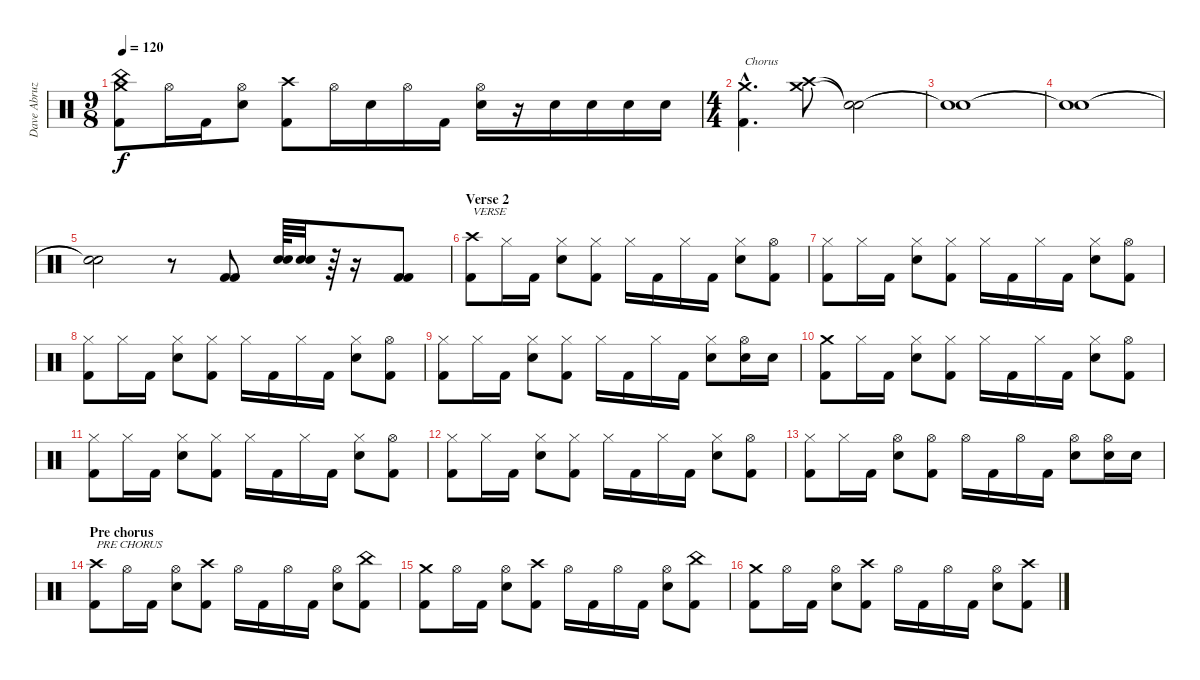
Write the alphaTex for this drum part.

\track ("Dave Abruzzesse" "Dave Abruz") {instrument percussion}
\staff {score}
\articulation defaults
\ts (9 8)
\tempo 120
\clef neutral
\ks c
("China (hit)" "Crash medium (hit)" "Kick (hit) 2").8{dy f} "Hi-Hat (open)".16 "Kick (hit) 2".16 ("Hi-Hat (open)" "Electric Snare (hit)").8 ("Crash high (hit)" "Kick (hit) 2").8 "Hi-Hat (open)".16 "Electric Snare (hit)".16 "Hi-Hat (open)".16 "Kick (hit) 2".16 ("Hi-Hat (open)" "Electric Snare (hit)").16 r.16 "Electric Snare (hit)".16 "Electric Snare (hit)".16 "Electric Snare (hit)".16 "Electric Snare (hit)".16 |
\ts (4 4)
("Crash medium (hit)"{hac} "Kick (hit) 2"{hac}).4{d txt "Chorus"} ("Crash high (hit)" "Crash medium (hit)").8 ("Snare (hit)"{t} "Snare (hit)"{t}).2 |
("Snare (hit)"{t} "Snare (hit)"{t}).1 |
("Snare (hit)"{t} "Snare (hit)"{t}).1 |
("Snare (hit)"{t} "Snare (hit)"{t}).2 r.8 ("Kick (hit) 2" "Kick (hit) 2").8 ("Electric Snare (hit)" "Electric Snare (hit)").64 ("Electric Snare (hit)" "Electric Snare (hit)").32 r.64 r.16 ("Kick (hit) 2" "Kick (hit) 2").8 |
\section ("" "Verse 2")
("Crash high (hit)" "Kick (hit) 2").8{txt "VERSE"} "Hi-Hat (closed)".16 "Kick (hit) 2".16 ("Hi-Hat (closed)" "Electric Snare (hit)").8 ("Hi-Hat (closed)" "Kick (hit) 2").8 "Hi-Hat (closed)".16 "Kick (hit) 2".16 "Hi-Hat (closed)".16 "Kick (hit) 2".16 ("Hi-Hat (closed)" "Electric Snare (hit)").8 ("Hi-Hat (open)" "Kick (hit) 2").8 |
("Hi-Hat (closed)" "Kick (hit) 2").8 "Hi-Hat (closed)".16 "Kick (hit) 2".16 ("Hi-Hat (closed)" "Electric Snare (hit)").8 ("Hi-Hat (closed)" "Kick (hit) 2").8 "Hi-Hat (closed)".16 "Kick (hit) 2".16 "Hi-Hat (closed)".16 "Kick (hit) 2".16 ("Hi-Hat (closed)" "Electric Snare (hit)").8 ("Hi-Hat (open)" "Kick (hit) 2").8 |
("Hi-Hat (closed)" "Kick (hit) 2").8 "Hi-Hat (closed)".16 "Kick (hit) 2".16 ("Hi-Hat (closed)" "Electric Snare (hit)").8 ("Hi-Hat (closed)" "Kick (hit) 2").8 "Hi-Hat (closed)".16 "Kick (hit) 2".16 "Hi-Hat (closed)".16 "Kick (hit) 2".16 ("Hi-Hat (closed)" "Electric Snare (hit)").8 ("Hi-Hat (open)" "Kick (hit) 2").8 |
("Hi-Hat (closed)" "Kick (hit) 2").8 "Hi-Hat (closed)".16 "Kick (hit) 2".16 ("Hi-Hat (closed)" "Electric Snare (hit)").8 ("Hi-Hat (closed)" "Kick (hit) 2").8 "Hi-Hat (closed)".16 "Kick (hit) 2".16 "Hi-Hat (closed)".16 "Kick (hit) 2".16 ("Hi-Hat (closed)" "Electric Snare (hit)").8 ("Hi-Hat (open)" "Electric Snare (hit)").16 "Electric Snare (hit)".16 |
("Crash medium (hit)" "Kick (hit) 2").8 "Hi-Hat (closed)".16 "Kick (hit) 2".16 ("Hi-Hat (closed)" "Electric Snare (hit)").8 ("Hi-Hat (closed)" "Kick (hit) 2").8 "Hi-Hat (closed)".16 "Kick (hit) 2".16 "Hi-Hat (closed)".16 "Kick (hit) 2".16 ("Hi-Hat (closed)" "Electric Snare (hit)").8 ("Hi-Hat (open)" "Kick (hit) 2").8 |
("Hi-Hat (closed)" "Kick (hit) 2").8 "Hi-Hat (closed)".16 "Kick (hit) 2".16 ("Hi-Hat (closed)" "Electric Snare (hit)").8 ("Hi-Hat (closed)" "Kick (hit) 2").8 "Hi-Hat (closed)".16 "Kick (hit) 2".16 "Hi-Hat (closed)".16 "Kick (hit) 2".16 ("Hi-Hat (closed)" "Electric Snare (hit)").8 ("Hi-Hat (open)" "Kick (hit) 2").8 |
("Hi-Hat (closed)" "Kick (hit) 2").8 "Hi-Hat (closed)".16 "Kick (hit) 2".16 ("Hi-Hat (closed)" "Electric Snare (hit)").8 ("Hi-Hat (closed)" "Kick (hit) 2").8 "Hi-Hat (closed)".16 "Kick (hit) 2".16 "Hi-Hat (closed)".16 "Kick (hit) 2".16 ("Hi-Hat (closed)" "Electric Snare (hit)").8 ("Hi-Hat (open)" "Kick (hit) 2").8 |
("Hi-Hat (closed)" "Kick (hit) 2").8 "Hi-Hat (closed)".16 "Kick (hit) 2".16 ("Hi-Hat (open)" "Electric Snare (hit)").8 ("Hi-Hat (open)" "Kick (hit) 2").8 "Hi-Hat (open)".16 "Kick (hit) 2".16 "Hi-Hat (open)".16 "Kick (hit) 2".16 ("Hi-Hat (open)" "Electric Snare (hit)").8 ("Hi-Hat (open)" "Electric Snare (hit)").16 "Electric Snare (hit)".16 |
\section ("" "Pre chorus")
("Crash high (hit)" "Kick (hit) 2").8{txt "PRE CHORUS"} "Hi-Hat (open)".16 "Kick (hit) 2".16 ("Hi-Hat (open)" "Electric Snare (hit)").8 ("Crash high (hit)" "Kick (hit) 2").8 "Hi-Hat (open)".16 "Kick (hit) 2".16 "Hi-Hat (open)".16 "Kick (hit) 2".16 ("Hi-Hat (open)" "Electric Snare (hit)").8 ("China (hit)" "Kick (hit) 2").8 |
("Crash medium (hit)" "Kick (hit) 2").8 "Hi-Hat (open)".16 "Kick (hit) 2".16 ("Hi-Hat (open)" "Electric Snare (hit)").8 ("Crash high (hit)" "Kick (hit) 2").8 "Hi-Hat (open)".16 "Kick (hit) 2".16 "Hi-Hat (open)".16 "Kick (hit) 2".16 ("Hi-Hat (open)" "Electric Snare (hit)").8 ("China (hit)" "Kick (hit) 2").8 |
("Crash medium (hit)" "Kick (hit) 2").8 "Hi-Hat (open)".16 "Kick (hit) 2".16 ("Hi-Hat (open)" "Electric Snare (hit)").8 ("Crash high (hit)" "Kick (hit) 2").8 "Hi-Hat (open)".16 "Kick (hit) 2".16 "Hi-Hat (open)".16 "Kick (hit) 2".16 ("Hi-Hat (open)" "Electric Snare (hit)").8 ("Crash high (hit)" "Kick (hit) 2").8
